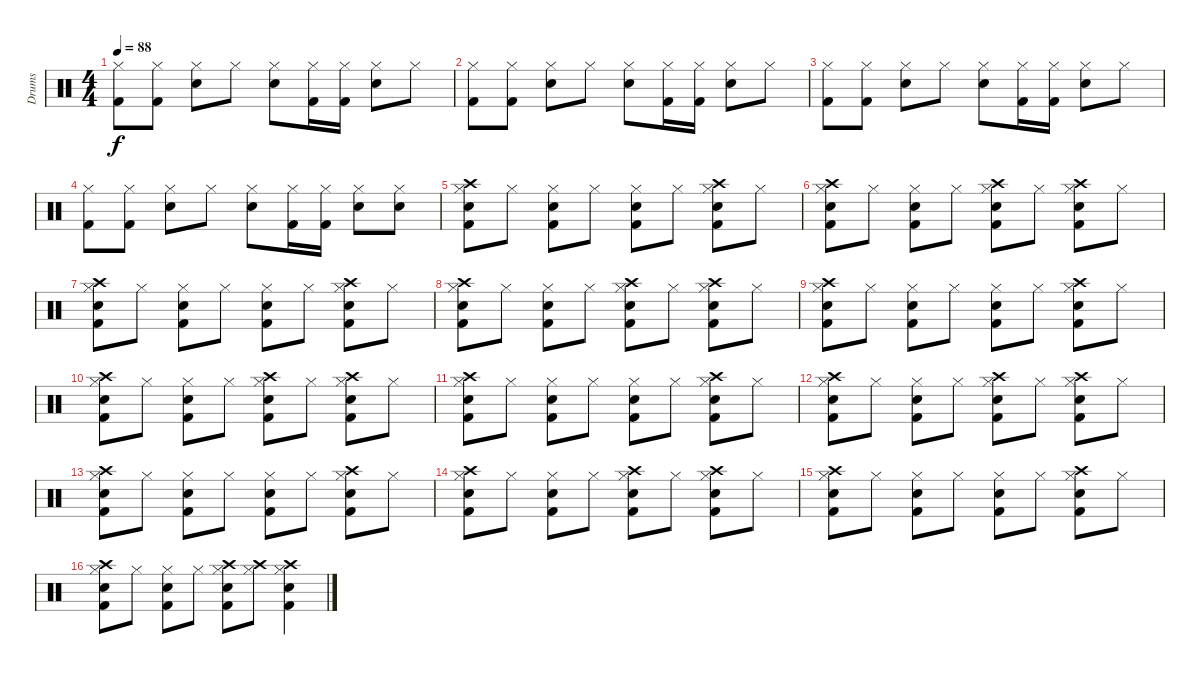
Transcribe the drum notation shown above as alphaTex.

\track ("Drums" "Drums") {instrument percussion}
\staff {score}
\articulation defaults
\ts (4 4)
\tempo 88
\clef neutral
\ks c
("Hi-Hat (closed)" "Kick (hit) 2").8{dy f} ("Hi-Hat (closed)" "Kick (hit) 2").8 ("Hi-Hat (closed)" "Electric Snare (hit)").8 "Hi-Hat (closed)".8 ("Hi-Hat (closed)" "Electric Snare (hit)").8 ("Hi-Hat (closed)" "Kick (hit) 2").16 ("Hi-Hat (closed)" "Kick (hit) 2").16 ("Hi-Hat (closed)" "Electric Snare (hit)").8 "Hi-Hat (closed)".8 |
("Hi-Hat (closed)" "Kick (hit) 2").8 ("Hi-Hat (closed)" "Kick (hit) 2").8 ("Hi-Hat (closed)" "Electric Snare (hit)").8 "Hi-Hat (closed)".8 ("Hi-Hat (closed)" "Electric Snare (hit)").8 ("Hi-Hat (closed)" "Kick (hit) 2").16 ("Hi-Hat (closed)" "Kick (hit) 2").16 ("Hi-Hat (closed)" "Electric Snare (hit)").8 "Hi-Hat (closed)".8 |
("Hi-Hat (closed)" "Kick (hit) 2").8 ("Hi-Hat (closed)" "Kick (hit) 2").8 ("Hi-Hat (closed)" "Electric Snare (hit)").8 "Hi-Hat (closed)".8 ("Hi-Hat (closed)" "Electric Snare (hit)").8 ("Hi-Hat (closed)" "Kick (hit) 2").16 ("Hi-Hat (closed)" "Kick (hit) 2").16 ("Hi-Hat (closed)" "Electric Snare (hit)").8 "Hi-Hat (closed)".8 |
("Hi-Hat (closed)" "Kick (hit) 2").8 ("Hi-Hat (closed)" "Kick (hit) 2").8 ("Hi-Hat (closed)" "Electric Snare (hit)").8 "Hi-Hat (closed)".8 ("Hi-Hat (closed)" "Electric Snare (hit)").8 ("Hi-Hat (closed)" "Kick (hit) 2").16 ("Hi-Hat (closed)" "Kick (hit) 2").16 ("Hi-Hat (closed)" "Electric Snare (hit)").8 ("Hi-Hat (closed)" "Electric Snare (hit)").8 |
("Crash high (hit)" "Hi-Hat (closed)" "Electric Snare (hit)" "Kick (hit) 2").8 "Hi-Hat (closed)".8 ("Hi-Hat (closed)" "Electric Snare (hit)" "Kick (hit) 2").8 "Hi-Hat (closed)".8 ("Hi-Hat (closed)" "Electric Snare (hit)" "Kick (hit) 2").8 "Hi-Hat (closed)".8 ("Crash high (hit)" "Hi-Hat (closed)" "Electric Snare (hit)" "Kick (hit) 2").8 "Hi-Hat (closed)".8 |
("Crash high (hit)" "Hi-Hat (closed)" "Electric Snare (hit)" "Kick (hit) 2").8 "Hi-Hat (closed)".8 ("Hi-Hat (closed)" "Electric Snare (hit)" "Kick (hit) 2").8 "Hi-Hat (closed)".8 ("Crash high (hit)" "Hi-Hat (closed)" "Electric Snare (hit)" "Kick (hit) 2").8 "Hi-Hat (closed)".8 ("Crash high (hit)" "Hi-Hat (closed)" "Electric Snare (hit)" "Kick (hit) 2").8 "Hi-Hat (closed)".8 |
("Crash high (hit)" "Hi-Hat (closed)" "Electric Snare (hit)" "Kick (hit) 2").8 "Hi-Hat (closed)".8 ("Hi-Hat (closed)" "Electric Snare (hit)" "Kick (hit) 2").8 "Hi-Hat (closed)".8 ("Hi-Hat (closed)" "Electric Snare (hit)" "Kick (hit) 2").8 "Hi-Hat (closed)".8 ("Crash high (hit)" "Hi-Hat (closed)" "Electric Snare (hit)" "Kick (hit) 2").8 "Hi-Hat (closed)".8 |
("Crash high (hit)" "Hi-Hat (closed)" "Electric Snare (hit)" "Kick (hit) 2").8 "Hi-Hat (closed)".8 ("Hi-Hat (closed)" "Electric Snare (hit)" "Kick (hit) 2").8 "Hi-Hat (closed)".8 ("Crash high (hit)" "Hi-Hat (closed)" "Electric Snare (hit)" "Kick (hit) 2").8 "Hi-Hat (closed)".8 ("Crash high (hit)" "Hi-Hat (closed)" "Electric Snare (hit)" "Kick (hit) 2").8 "Hi-Hat (closed)".8 |
("Crash high (hit)" "Hi-Hat (closed)" "Electric Snare (hit)" "Kick (hit) 2").8 "Hi-Hat (closed)".8 ("Hi-Hat (closed)" "Electric Snare (hit)" "Kick (hit) 2").8 "Hi-Hat (closed)".8 ("Hi-Hat (closed)" "Electric Snare (hit)" "Kick (hit) 2").8 "Hi-Hat (closed)".8 ("Crash high (hit)" "Hi-Hat (closed)" "Electric Snare (hit)" "Kick (hit) 2").8 "Hi-Hat (closed)".8 |
("Crash high (hit)" "Hi-Hat (closed)" "Electric Snare (hit)" "Kick (hit) 2").8 "Hi-Hat (closed)".8 ("Hi-Hat (closed)" "Electric Snare (hit)" "Kick (hit) 2").8 "Hi-Hat (closed)".8 ("Crash high (hit)" "Hi-Hat (closed)" "Electric Snare (hit)" "Kick (hit) 2").8 "Hi-Hat (closed)".8 ("Crash high (hit)" "Hi-Hat (closed)" "Electric Snare (hit)" "Kick (hit) 2").8 "Hi-Hat (closed)".8 |
("Crash high (hit)" "Hi-Hat (closed)" "Electric Snare (hit)" "Kick (hit) 2").8 "Hi-Hat (closed)".8 ("Hi-Hat (closed)" "Electric Snare (hit)" "Kick (hit) 2").8 "Hi-Hat (closed)".8 ("Hi-Hat (closed)" "Electric Snare (hit)" "Kick (hit) 2").8 "Hi-Hat (closed)".8 ("Crash high (hit)" "Hi-Hat (closed)" "Electric Snare (hit)" "Kick (hit) 2").8 "Hi-Hat (closed)".8 |
("Crash high (hit)" "Hi-Hat (closed)" "Electric Snare (hit)" "Kick (hit) 2").8 "Hi-Hat (closed)".8 ("Hi-Hat (closed)" "Electric Snare (hit)" "Kick (hit) 2").8 "Hi-Hat (closed)".8 ("Crash high (hit)" "Hi-Hat (closed)" "Electric Snare (hit)" "Kick (hit) 2").8 "Hi-Hat (closed)".8 ("Crash high (hit)" "Hi-Hat (closed)" "Electric Snare (hit)" "Kick (hit) 2").8 "Hi-Hat (closed)".8 |
("Crash high (hit)" "Hi-Hat (closed)" "Electric Snare (hit)" "Kick (hit) 2").8 "Hi-Hat (closed)".8 ("Hi-Hat (closed)" "Electric Snare (hit)" "Kick (hit) 2").8 "Hi-Hat (closed)".8 ("Hi-Hat (closed)" "Electric Snare (hit)" "Kick (hit) 2").8 "Hi-Hat (closed)".8 ("Crash high (hit)" "Hi-Hat (closed)" "Electric Snare (hit)" "Kick (hit) 2").8 "Hi-Hat (closed)".8 |
("Crash high (hit)" "Hi-Hat (closed)" "Electric Snare (hit)" "Kick (hit) 2").8 "Hi-Hat (closed)".8 ("Hi-Hat (closed)" "Electric Snare (hit)" "Kick (hit) 2").8 "Hi-Hat (closed)".8 ("Crash high (hit)" "Hi-Hat (closed)" "Electric Snare (hit)" "Kick (hit) 2").8 "Hi-Hat (closed)".8 ("Crash high (hit)" "Hi-Hat (closed)" "Electric Snare (hit)" "Kick (hit) 2").8 "Hi-Hat (closed)".8 |
("Crash high (hit)" "Hi-Hat (closed)" "Electric Snare (hit)" "Kick (hit) 2").8 "Hi-Hat (closed)".8 ("Hi-Hat (closed)" "Electric Snare (hit)" "Kick (hit) 2").8 "Hi-Hat (closed)".8 ("Hi-Hat (closed)" "Electric Snare (hit)" "Kick (hit) 2").8 "Hi-Hat (closed)".8 ("Crash high (hit)" "Hi-Hat (closed)" "Electric Snare (hit)" "Kick (hit) 2").8 "Hi-Hat (closed)".8 |
("Crash high (hit)" "Hi-Hat (closed)" "Electric Snare (hit)" "Kick (hit) 2").8 "Hi-Hat (closed)".8 ("Hi-Hat (closed)" "Electric Snare (hit)" "Kick (hit) 2").8 "Hi-Hat (closed)".8 ("Crash high (hit)" "Hi-Hat (closed)" "Electric Snare (hit)" "Kick (hit) 2").8 ("Crash high (hit)" "Hi-Hat (closed)").8 ("Crash high (hit)" "Hi-Hat (closed)" "Electric Snare (hit)" "Kick (hit) 2").4
